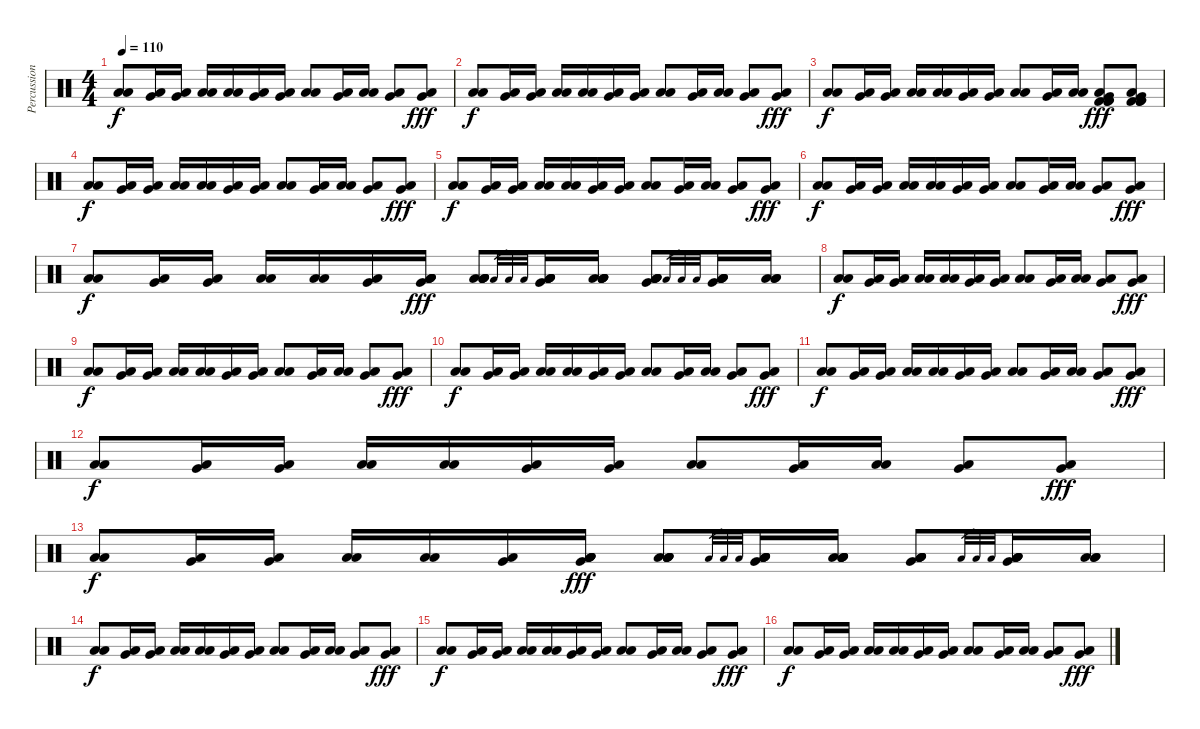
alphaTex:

\track ("Percussion" "Percussion") {instrument percussion}
\staff {score}
\articulation defaults
\ts (4 4)
\tempo 110
\clef neutral
\ks c
("Low Floor Tom (hit)" "Low Floor Tom (hit)").8{dy f} ("Low Tom (hit)" "Very Low Tom (hit)").16 ("Low Tom (hit)" "Very Low Tom (hit)").16 ("Low Floor Tom (hit)" "Low Floor Tom (hit)").16 ("Low Floor Tom (hit)" "Low Floor Tom (hit)").16 ("Low Tom (hit)" "Very Low Tom (hit)").16 ("Low Tom (hit)" "Very Low Tom (hit)").16 ("Low Floor Tom (hit)" "Low Floor Tom (hit)").8 ("Low Tom (hit)" "Very Low Tom (hit)").16 ("Low Tom (hit)" "Low Tom (hit)").16 ("Low Floor Tom (hit)" "Very Low Tom (hit)").8 ("Low Floor Tom (hit)" "Very Low Tom (hit)").8{dy fff} |
("Low Floor Tom (hit)" "Low Floor Tom (hit)").8{dy f} ("Low Tom (hit)" "Very Low Tom (hit)").16 ("Low Tom (hit)" "Very Low Tom (hit)").16 ("Low Floor Tom (hit)" "Low Floor Tom (hit)").16 ("Low Floor Tom (hit)" "Low Floor Tom (hit)").16 ("Low Tom (hit)" "Very Low Tom (hit)").16 ("Low Tom (hit)" "Very Low Tom (hit)").16 ("Low Floor Tom (hit)" "Low Floor Tom (hit)").8 ("Low Tom (hit)" "Very Low Tom (hit)").16 ("Low Tom (hit)" "Low Tom (hit)").16 ("Low Floor Tom (hit)" "Very Low Tom (hit)").8 ("Low Floor Tom (hit)" "Very Low Tom (hit)").8{dy fff} |
("Low Floor Tom (hit)" "Low Floor Tom (hit)").8{dy f} ("Low Tom (hit)" "Very Low Tom (hit)").16 ("Low Tom (hit)" "Very Low Tom (hit)").16 ("Low Floor Tom (hit)" "Low Floor Tom (hit)").16 ("Low Floor Tom (hit)" "Low Floor Tom (hit)").16 ("Low Tom (hit)" "Very Low Tom (hit)").16 ("Low Tom (hit)" "Very Low Tom (hit)").16 ("Low Floor Tom (hit)" "Low Floor Tom (hit)").8 ("Low Tom (hit)" "Very Low Tom (hit)").16 ("Low Tom (hit)" "Low Tom (hit)").16 ("Low Floor Tom (hit)" "Very Low Tom (hit)" "Kick (hit) 2" "Kick (hit) 2" "Kick (hit) 2").8{dy fff} ("Low Floor Tom (hit)" "Very Low Tom (hit)" "Kick (hit) 2" "Kick (hit) 2" "Kick (hit) 2").8 |
("Low Floor Tom (hit)" "Low Floor Tom (hit)").8{dy f} ("Low Tom (hit)" "Very Low Tom (hit)").16 ("Low Tom (hit)" "Very Low Tom (hit)").16 ("Low Floor Tom (hit)" "Low Floor Tom (hit)").16 ("Low Floor Tom (hit)" "Low Floor Tom (hit)").16 ("Low Tom (hit)" "Very Low Tom (hit)").16 ("Low Tom (hit)" "Very Low Tom (hit)").16 ("Low Floor Tom (hit)" "Low Floor Tom (hit)").8 ("Low Tom (hit)" "Very Low Tom (hit)").16 ("Low Tom (hit)" "Low Tom (hit)").16 ("Low Floor Tom (hit)" "Very Low Tom (hit)").8 ("Low Floor Tom (hit)" "Very Low Tom (hit)").8{dy fff} |
("Low Floor Tom (hit)" "Low Floor Tom (hit)").8{dy f} ("Low Tom (hit)" "Very Low Tom (hit)").16 ("Low Tom (hit)" "Very Low Tom (hit)").16 ("Low Floor Tom (hit)" "Low Floor Tom (hit)").16 ("Low Floor Tom (hit)" "Low Floor Tom (hit)").16 ("Low Tom (hit)" "Very Low Tom (hit)").16 ("Low Tom (hit)" "Very Low Tom (hit)").16 ("Low Floor Tom (hit)" "Low Floor Tom (hit)").8 ("Low Tom (hit)" "Very Low Tom (hit)").16 ("Low Tom (hit)" "Low Tom (hit)").16 ("Low Floor Tom (hit)" "Very Low Tom (hit)").8 ("Low Floor Tom (hit)" "Very Low Tom (hit)").8{dy fff} |
("Low Floor Tom (hit)" "Low Floor Tom (hit)").8{dy f} ("Low Tom (hit)" "Very Low Tom (hit)").16 ("Low Tom (hit)" "Very Low Tom (hit)").16 ("Low Floor Tom (hit)" "Low Floor Tom (hit)").16 ("Low Floor Tom (hit)" "Low Floor Tom (hit)").16 ("Low Tom (hit)" "Very Low Tom (hit)").16 ("Low Tom (hit)" "Very Low Tom (hit)").16 ("Low Floor Tom (hit)" "Low Floor Tom (hit)").8 ("Low Tom (hit)" "Very Low Tom (hit)").16 ("Low Tom (hit)" "Low Tom (hit)").16 ("Low Floor Tom (hit)" "Very Low Tom (hit)").8 ("Low Floor Tom (hit)" "Very Low Tom (hit)").8{dy fff} |
("Low Floor Tom (hit)" "Low Floor Tom (hit)").8{dy f} ("Low Tom (hit)" "Very Low Tom (hit)").16 ("Low Tom (hit)" "Very Low Tom (hit)").16 ("Low Floor Tom (hit)" "Low Floor Tom (hit)").16 ("Low Floor Tom (hit)" "Low Floor Tom (hit)").16 ("Low Tom (hit)" "Very Low Tom (hit)").16 ("Low Tom (hit)" "Very Low Tom (hit)" "Low Floor Tom (hit)" "Low Floor Tom (hit)" "Low Floor Tom (hit)").16{dy fff} ("Low Floor Tom (hit)" "Low Floor Tom (hit)" "Low Floor Tom (hit)" "Low Floor Tom (hit)" "Low Floor Tom (hit)").8 "Low Floor Tom (hit)".32{gr} "Low Floor Tom (hit)".32{gr} "Low Floor Tom (hit)".32{gr} ("Low Tom (hit)" "Very Low Tom (hit)" "Low Floor Tom (hit)" "Low Floor Tom (hit)" "Low Floor Tom (hit)").16 ("Low Tom (hit)" "Low Tom (hit)" "Low Floor Tom (hit)" "Low Floor Tom (hit)" "Low Floor Tom (hit)").16 ("Low Floor Tom (hit)" "Very Low Tom (hit)" "Low Floor Tom (hit)" "Low Floor Tom (hit)" "Low Floor Tom (hit)").8 "Low Floor Tom (hit)".32{gr} "Low Floor Tom (hit)".32{gr} "Low Floor Tom (hit)".32{gr} ("Low Floor Tom (hit)" "Very Low Tom (hit)" "Low Floor Tom (hit)" "Low Floor Tom (hit)" "Low Floor Tom (hit)").16 ("Low Floor Tom (hit)" "Low Floor Tom (hit)" "Low Floor Tom (hit)").16 |
("Low Floor Tom (hit)" "Low Floor Tom (hit)").8{dy f} ("Low Tom (hit)" "Very Low Tom (hit)").16 ("Low Tom (hit)" "Very Low Tom (hit)").16 ("Low Floor Tom (hit)" "Low Floor Tom (hit)").16 ("Low Floor Tom (hit)" "Low Floor Tom (hit)").16 ("Low Tom (hit)" "Very Low Tom (hit)").16 ("Low Tom (hit)" "Very Low Tom (hit)").16 ("Low Floor Tom (hit)" "Low Floor Tom (hit)").8 ("Low Tom (hit)" "Very Low Tom (hit)").16 ("Low Tom (hit)" "Low Tom (hit)").16 ("Low Floor Tom (hit)" "Very Low Tom (hit)").8 ("Low Floor Tom (hit)" "Very Low Tom (hit)").8{dy fff} |
("Low Floor Tom (hit)" "Low Floor Tom (hit)").8{dy f} ("Low Tom (hit)" "Very Low Tom (hit)").16 ("Low Tom (hit)" "Very Low Tom (hit)").16 ("Low Floor Tom (hit)" "Low Floor Tom (hit)").16 ("Low Floor Tom (hit)" "Low Floor Tom (hit)").16 ("Low Tom (hit)" "Very Low Tom (hit)").16 ("Low Tom (hit)" "Very Low Tom (hit)").16 ("Low Floor Tom (hit)" "Low Floor Tom (hit)").8 ("Low Tom (hit)" "Very Low Tom (hit)").16 ("Low Tom (hit)" "Low Tom (hit)").16 ("Low Floor Tom (hit)" "Very Low Tom (hit)").8 ("Low Floor Tom (hit)" "Very Low Tom (hit)").8{dy fff} |
("Low Floor Tom (hit)" "Low Floor Tom (hit)").8{dy f} ("Low Tom (hit)" "Very Low Tom (hit)").16 ("Low Tom (hit)" "Very Low Tom (hit)").16 ("Low Floor Tom (hit)" "Low Floor Tom (hit)").16 ("Low Floor Tom (hit)" "Low Floor Tom (hit)").16 ("Low Tom (hit)" "Very Low Tom (hit)").16 ("Low Tom (hit)" "Very Low Tom (hit)").16 ("Low Floor Tom (hit)" "Low Floor Tom (hit)").8 ("Low Tom (hit)" "Very Low Tom (hit)").16 ("Low Tom (hit)" "Low Tom (hit)").16 ("Low Floor Tom (hit)" "Very Low Tom (hit)").8 ("Low Floor Tom (hit)" "Very Low Tom (hit)").8{dy fff} |
("Low Floor Tom (hit)" "Low Floor Tom (hit)").8{dy f} ("Low Tom (hit)" "Very Low Tom (hit)").16 ("Low Tom (hit)" "Very Low Tom (hit)").16 ("Low Floor Tom (hit)" "Low Floor Tom (hit)").16 ("Low Floor Tom (hit)" "Low Floor Tom (hit)").16 ("Low Tom (hit)" "Very Low Tom (hit)").16 ("Low Tom (hit)" "Very Low Tom (hit)").16 ("Low Floor Tom (hit)" "Low Floor Tom (hit)").8 ("Low Tom (hit)" "Very Low Tom (hit)").16 ("Low Tom (hit)" "Low Tom (hit)").16 ("Low Floor Tom (hit)" "Very Low Tom (hit)").8 ("Low Floor Tom (hit)" "Very Low Tom (hit)").8{dy fff} |
("Low Floor Tom (hit)" "Low Floor Tom (hit)").8{dy f} ("Low Tom (hit)" "Very Low Tom (hit)").16 ("Low Tom (hit)" "Very Low Tom (hit)").16 ("Low Floor Tom (hit)" "Low Floor Tom (hit)").16 ("Low Floor Tom (hit)" "Low Floor Tom (hit)").16 ("Low Tom (hit)" "Very Low Tom (hit)").16 ("Low Tom (hit)" "Very Low Tom (hit)").16 ("Low Floor Tom (hit)" "Low Floor Tom (hit)").8 ("Low Tom (hit)" "Very Low Tom (hit)").16 ("Low Tom (hit)" "Low Tom (hit)").16 ("Low Floor Tom (hit)" "Very Low Tom (hit)").8 ("Low Floor Tom (hit)" "Very Low Tom (hit)").8{dy fff} |
("Low Floor Tom (hit)" "Low Floor Tom (hit)").8{dy f} ("Low Tom (hit)" "Very Low Tom (hit)").16 ("Low Tom (hit)" "Very Low Tom (hit)").16 ("Low Floor Tom (hit)" "Low Floor Tom (hit)").16 ("Low Floor Tom (hit)" "Low Floor Tom (hit)").16 ("Low Tom (hit)" "Very Low Tom (hit)").16 ("Low Tom (hit)" "Very Low Tom (hit)" "Low Floor Tom (hit)" "Low Floor Tom (hit)" "Low Floor Tom (hit)").16{dy fff} ("Low Floor Tom (hit)" "Low Floor Tom (hit)" "Low Floor Tom (hit)" "Low Floor Tom (hit)" "Low Floor Tom (hit)").8 "Low Floor Tom (hit)".32{gr} "Low Floor Tom (hit)".32{gr} "Low Floor Tom (hit)".32{gr} ("Low Tom (hit)" "Very Low Tom (hit)" "Low Floor Tom (hit)" "Low Floor Tom (hit)" "Low Floor Tom (hit)").16 ("Low Tom (hit)" "Low Tom (hit)" "Low Floor Tom (hit)" "Low Floor Tom (hit)" "Low Floor Tom (hit)").16 ("Low Floor Tom (hit)" "Very Low Tom (hit)" "Low Floor Tom (hit)" "Low Floor Tom (hit)" "Low Floor Tom (hit)").8 "Low Floor Tom (hit)".32{gr} "Low Floor Tom (hit)".32{gr} "Low Floor Tom (hit)".32{gr} ("Low Floor Tom (hit)" "Very Low Tom (hit)" "Low Floor Tom (hit)" "Low Floor Tom (hit)" "Low Floor Tom (hit)").16 ("Low Floor Tom (hit)" "Low Floor Tom (hit)" "Low Floor Tom (hit)").16 |
("Low Floor Tom (hit)" "Low Floor Tom (hit)").8{dy f} ("Low Tom (hit)" "Very Low Tom (hit)").16 ("Low Tom (hit)" "Very Low Tom (hit)").16 ("Low Floor Tom (hit)" "Low Floor Tom (hit)").16 ("Low Floor Tom (hit)" "Low Floor Tom (hit)").16 ("Low Tom (hit)" "Very Low Tom (hit)").16 ("Low Tom (hit)" "Very Low Tom (hit)").16 ("Low Floor Tom (hit)" "Low Floor Tom (hit)").8 ("Low Tom (hit)" "Very Low Tom (hit)").16 ("Low Tom (hit)" "Low Tom (hit)").16 ("Low Floor Tom (hit)" "Very Low Tom (hit)").8 ("Low Floor Tom (hit)" "Very Low Tom (hit)").8{dy fff} |
("Low Floor Tom (hit)" "Low Floor Tom (hit)").8{dy f} ("Low Tom (hit)" "Very Low Tom (hit)").16 ("Low Tom (hit)" "Very Low Tom (hit)").16 ("Low Floor Tom (hit)" "Low Floor Tom (hit)").16 ("Low Floor Tom (hit)" "Low Floor Tom (hit)").16 ("Low Tom (hit)" "Very Low Tom (hit)").16 ("Low Tom (hit)" "Very Low Tom (hit)").16 ("Low Floor Tom (hit)" "Low Floor Tom (hit)").8 ("Low Tom (hit)" "Very Low Tom (hit)").16 ("Low Tom (hit)" "Low Tom (hit)").16 ("Low Floor Tom (hit)" "Very Low Tom (hit)").8 ("Low Floor Tom (hit)" "Very Low Tom (hit)").8{dy fff} |
("Low Floor Tom (hit)" "Low Floor Tom (hit)").8{dy f} ("Low Tom (hit)" "Very Low Tom (hit)").16 ("Low Tom (hit)" "Very Low Tom (hit)").16 ("Low Floor Tom (hit)" "Low Floor Tom (hit)").16 ("Low Floor Tom (hit)" "Low Floor Tom (hit)").16 ("Low Tom (hit)" "Very Low Tom (hit)").16 ("Low Tom (hit)" "Very Low Tom (hit)").16 ("Low Floor Tom (hit)" "Low Floor Tom (hit)").8 ("Low Tom (hit)" "Very Low Tom (hit)").16 ("Low Tom (hit)" "Low Tom (hit)").16 ("Low Floor Tom (hit)" "Very Low Tom (hit)").8 ("Low Floor Tom (hit)" "Very Low Tom (hit)").8{dy fff}
